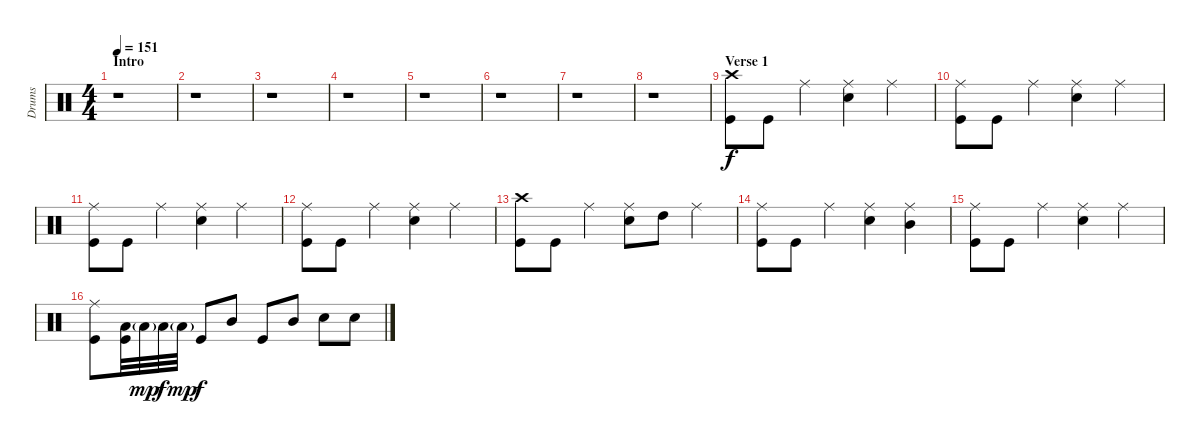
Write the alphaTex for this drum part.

\track ("Drums" "Drums") {instrument percussion}
\staff {score}
\articulation defaults
\ts (4 4)
\section ("" "Intro")
\tempo 151
\clef neutral
\ks c
r.1{dy f} |
r.1 |
r.1 |
r.1 |
r.1 |
r.1 |
r.1 |
r.1 |
\section ("" "Verse 1")
("Crash high (hit)" "Kick (hit)").8 "Kick (hit)".8 "Ride (middle)".4 ("Ride (middle)" "Electric Snare (hit)").4 "Ride (middle)".4 |
("Ride (middle)" "Kick (hit)").8 "Kick (hit)".8 "Ride (middle)".4 ("Ride (middle)" "Electric Snare (hit)").4 "Ride (middle)".4 |
("Ride (middle)" "Kick (hit)").8 "Kick (hit)".8 "Ride (middle)".4 ("Ride (middle)" "Electric Snare (hit)").4 "Ride (middle)".4 |
("Ride (middle)" "Kick (hit)").8 "Kick (hit)".8 "Ride (middle)".4 ("Ride (middle)" "Electric Snare (hit)").4 "Ride (middle)".4 |
("Crash high (hit)" "Kick (hit)").8 "Kick (hit)".8 "Ride (middle)".4 ("Ride (middle)" "Electric Snare (hit)").8 "High Tom (hit)".8 "Ride (middle)".4 |
("Ride (middle)" "Kick (hit)").8 "Kick (hit)".8 "Ride (middle)".4 ("Ride (middle)" "Electric Snare (hit)").4 ("Ride (middle)" "Mid Tom (hit)").4 |
("Ride (middle)" "Kick (hit)").8 "Kick (hit)".8 "Ride (middle)".4 ("Ride (middle)" "Electric Snare (hit)").4 "Ride (middle)".4 |
("Ride (middle)" "Kick (hit)").8 ("Low Tom (hit)" "Kick (hit)").32 "Low Tom (hit)"{g}.32{dy mp} "Low Tom (hit)".32{dy f} "Low Tom (hit)"{g}.32{dy mp} "Kick (hit)".8{dy f} "Mid Tom (hit)".8 "Kick (hit)".8 "Mid Tom (hit)".8 "Electric Snare (hit)".8 "Electric Snare (hit)".8
